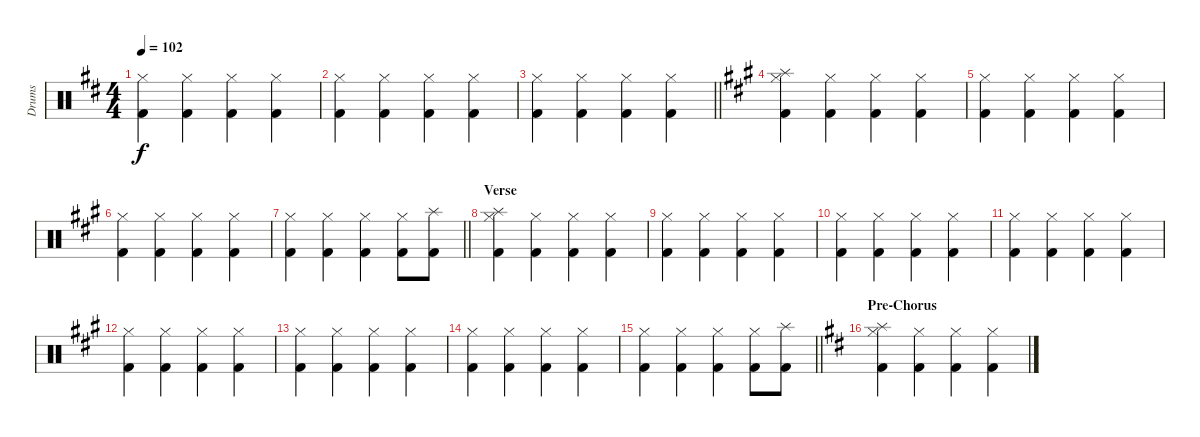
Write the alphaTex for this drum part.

\track ("Drums" "Drums") {instrument percussion}
\staff {score}
\articulation defaults
\ts (4 4)
\tempo 102
\clef neutral
\ks d
("Hi-Hat (closed)" "Kick (hit) 2").4{dy f} ("Hi-Hat (closed)" "Kick (hit) 2").4 ("Hi-Hat (closed)" "Kick (hit) 2").4 ("Hi-Hat (closed)" "Kick (hit) 2").4 |
("Hi-Hat (closed)" "Kick (hit) 2").4 ("Hi-Hat (closed)" "Kick (hit) 2").4 ("Hi-Hat (closed)" "Kick (hit) 2").4 ("Hi-Hat (closed)" "Kick (hit) 2").4 |
\barLineRight lightlight
("Hi-Hat (closed)" "Kick (hit) 2").4 ("Hi-Hat (closed)" "Kick (hit) 2").4 ("Hi-Hat (closed)" "Kick (hit) 2").4 ("Hi-Hat (closed)" "Kick (hit) 2").4 |
\section ("" "")
\ks a
("Hi-Hat (closed)" "Splash (hit)" "Kick (hit) 2").4 ("Hi-Hat (closed)" "Kick (hit) 2").4 ("Hi-Hat (closed)" "Kick (hit) 2").4 ("Hi-Hat (closed)" "Kick (hit) 2").4 |
("Hi-Hat (closed)" "Kick (hit) 2").4 ("Hi-Hat (closed)" "Kick (hit) 2").4 ("Hi-Hat (closed)" "Kick (hit) 2").4 ("Hi-Hat (closed)" "Kick (hit) 2").4 |
("Hi-Hat (closed)" "Kick (hit) 2").4 ("Hi-Hat (closed)" "Kick (hit) 2").4 ("Hi-Hat (closed)" "Kick (hit) 2").4 ("Hi-Hat (closed)" "Kick (hit) 2").4 |
\barLineRight lightlight
("Hi-Hat (closed)" "Kick (hit) 2").4 ("Hi-Hat (closed)" "Kick (hit) 2").4 ("Hi-Hat (closed)" "Kick (hit) 2").4 ("Hi-Hat (closed)" "Kick (hit) 2").8 ("Splash (hit)" "Kick (hit) 2").8 |
\section ("" "Verse")
("Hi-Hat (closed)" "Splash (hit)" "Kick (hit) 2").4 ("Hi-Hat (closed)" "Kick (hit) 2").4 ("Hi-Hat (closed)" "Kick (hit) 2").4 ("Hi-Hat (closed)" "Kick (hit) 2").4 |
("Hi-Hat (closed)" "Kick (hit) 2").4 ("Hi-Hat (closed)" "Kick (hit) 2").4 ("Hi-Hat (closed)" "Kick (hit) 2").4 ("Hi-Hat (closed)" "Kick (hit) 2").4 |
("Hi-Hat (closed)" "Kick (hit) 2").4 ("Hi-Hat (closed)" "Kick (hit) 2").4 ("Hi-Hat (closed)" "Kick (hit) 2").4 ("Hi-Hat (closed)" "Kick (hit) 2").4 |
("Hi-Hat (closed)" "Kick (hit) 2").4 ("Hi-Hat (closed)" "Kick (hit) 2").4 ("Hi-Hat (closed)" "Kick (hit) 2").4 ("Hi-Hat (closed)" "Kick (hit) 2").4 |
("Hi-Hat (closed)" "Kick (hit) 2").4 ("Hi-Hat (closed)" "Kick (hit) 2").4 ("Hi-Hat (closed)" "Kick (hit) 2").4 ("Hi-Hat (closed)" "Kick (hit) 2").4 |
("Hi-Hat (closed)" "Kick (hit) 2").4 ("Hi-Hat (closed)" "Kick (hit) 2").4 ("Hi-Hat (closed)" "Kick (hit) 2").4 ("Hi-Hat (closed)" "Kick (hit) 2").4 |
("Hi-Hat (closed)" "Kick (hit) 2").4 ("Hi-Hat (closed)" "Kick (hit) 2").4 ("Hi-Hat (closed)" "Kick (hit) 2").4 ("Hi-Hat (closed)" "Kick (hit) 2").4 |
\barLineRight lightlight
("Hi-Hat (closed)" "Kick (hit) 2").4 ("Hi-Hat (closed)" "Kick (hit) 2").4 ("Hi-Hat (closed)" "Kick (hit) 2").4 ("Hi-Hat (closed)" "Kick (hit) 2").8 ("Splash (hit)" "Kick (hit) 2").8 |
\section ("" "Pre-Chorus")
\ks d
("Hi-Hat (closed)" "Splash (hit)" "Kick (hit) 2").4 ("Hi-Hat (closed)" "Kick (hit) 2").4 ("Hi-Hat (closed)" "Kick (hit) 2").4 ("Hi-Hat (closed)" "Kick (hit) 2").4
